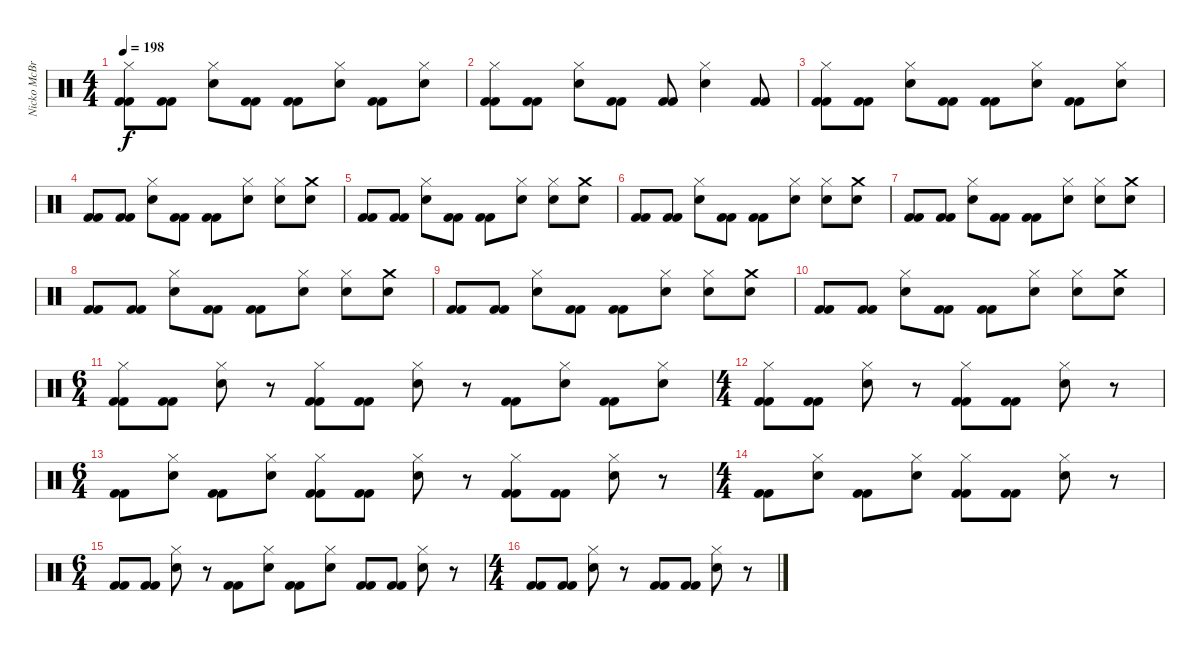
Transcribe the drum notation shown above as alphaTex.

\track ("Nicko McBrain" "Nicko McBr") {instrument percussion}
\staff {score}
\articulation defaults
\ts (4 4)
\tempo 198
\clef neutral
\ks c
("Hi-Hat (closed)" "Kick (hit) 2" "Kick (hit) 2").8{dy f} ("Kick (hit) 2" "Kick (hit) 2").8 ("Hi-Hat (closed)" "Electric Snare (hit)").8 ("Kick (hit) 2" "Kick (hit) 2").8 ("Kick (hit) 2" "Kick (hit) 2").8 ("Hi-Hat (closed)" "Electric Snare (hit)").8 ("Kick (hit) 2" "Kick (hit) 2").8 ("Hi-Hat (closed)" "Electric Snare (hit)").8 |
("Hi-Hat (closed)" "Kick (hit) 2" "Kick (hit) 2").8 ("Kick (hit) 2" "Kick (hit) 2").8 ("Hi-Hat (closed)" "Electric Snare (hit)").8 ("Kick (hit) 2" "Kick (hit) 2").8 ("Kick (hit) 2" "Kick (hit) 2").8 ("Hi-Hat (closed)" "Electric Snare (hit)").4 ("Kick (hit) 2" "Kick (hit) 2").8 |
("Hi-Hat (closed)" "Kick (hit) 2" "Kick (hit) 2").8 ("Kick (hit) 2" "Kick (hit) 2").8 ("Hi-Hat (closed)" "Electric Snare (hit)").8 ("Kick (hit) 2" "Kick (hit) 2").8 ("Kick (hit) 2" "Kick (hit) 2").8 ("Hi-Hat (closed)" "Electric Snare (hit)").8 ("Kick (hit) 2" "Kick (hit) 2").8 ("Hi-Hat (closed)" "Electric Snare (hit)").8 |
("Kick (hit) 2" "Kick (hit) 2").8 ("Kick (hit) 2" "Kick (hit) 2").8 ("Hi-Hat (closed)" "Electric Snare (hit)").8 ("Kick (hit) 2" "Kick (hit) 2").8 ("Kick (hit) 2" "Kick (hit) 2").8 ("Hi-Hat (closed)" "Electric Snare (hit)").8 ("Hi-Hat (closed)" "Electric Snare (hit)").8 ("Crash medium (hit)" "Electric Snare (hit)").8 |
("Kick (hit) 2" "Kick (hit) 2").8 ("Kick (hit) 2" "Kick (hit) 2").8 ("Hi-Hat (closed)" "Electric Snare (hit)").8 ("Kick (hit) 2" "Kick (hit) 2").8 ("Kick (hit) 2" "Kick (hit) 2").8 ("Hi-Hat (closed)" "Electric Snare (hit)").8 ("Hi-Hat (closed)" "Electric Snare (hit)").8 ("Crash medium (hit)" "Electric Snare (hit)").8 |
("Kick (hit) 2" "Kick (hit) 2").8 ("Kick (hit) 2" "Kick (hit) 2").8 ("Hi-Hat (closed)" "Electric Snare (hit)").8 ("Kick (hit) 2" "Kick (hit) 2").8 ("Kick (hit) 2" "Kick (hit) 2").8 ("Hi-Hat (closed)" "Electric Snare (hit)").8 ("Hi-Hat (closed)" "Electric Snare (hit)").8 ("Crash medium (hit)" "Electric Snare (hit)").8 |
("Kick (hit) 2" "Kick (hit) 2").8 ("Kick (hit) 2" "Kick (hit) 2").8 ("Hi-Hat (closed)" "Electric Snare (hit)").8 ("Kick (hit) 2" "Kick (hit) 2").8 ("Kick (hit) 2" "Kick (hit) 2").8 ("Hi-Hat (closed)" "Electric Snare (hit)").8 ("Hi-Hat (closed)" "Electric Snare (hit)").8 ("Crash medium (hit)" "Electric Snare (hit)").8 |
("Kick (hit) 2" "Kick (hit) 2").8 ("Kick (hit) 2" "Kick (hit) 2").8 ("Hi-Hat (closed)" "Electric Snare (hit)").8 ("Kick (hit) 2" "Kick (hit) 2").8 ("Kick (hit) 2" "Kick (hit) 2").8 ("Hi-Hat (closed)" "Electric Snare (hit)").8 ("Hi-Hat (closed)" "Electric Snare (hit)").8 ("Crash medium (hit)" "Electric Snare (hit)").8 |
("Kick (hit) 2" "Kick (hit) 2").8 ("Kick (hit) 2" "Kick (hit) 2").8 ("Hi-Hat (closed)" "Electric Snare (hit)").8 ("Kick (hit) 2" "Kick (hit) 2").8 ("Kick (hit) 2" "Kick (hit) 2").8 ("Hi-Hat (closed)" "Electric Snare (hit)").8 ("Hi-Hat (closed)" "Electric Snare (hit)").8 ("Crash medium (hit)" "Electric Snare (hit)").8 |
("Kick (hit) 2" "Kick (hit) 2").8 ("Kick (hit) 2" "Kick (hit) 2").8 ("Hi-Hat (closed)" "Electric Snare (hit)").8 ("Kick (hit) 2" "Kick (hit) 2").8 ("Kick (hit) 2" "Kick (hit) 2").8 ("Hi-Hat (closed)" "Electric Snare (hit)").8 ("Hi-Hat (closed)" "Electric Snare (hit)").8 ("Crash medium (hit)" "Electric Snare (hit)").8 |
\ts (6 4)
("Hi-Hat (closed)" "Kick (hit) 2" "Kick (hit) 2").8 ("Kick (hit) 2" "Kick (hit) 2").8 ("Hi-Hat (closed)" "Electric Snare (hit)").8 r.8 ("Hi-Hat (closed)" "Kick (hit) 2" "Kick (hit) 2").8 ("Kick (hit) 2" "Kick (hit) 2").8 ("Hi-Hat (closed)" "Electric Snare (hit)").8 r.8 ("Kick (hit) 2" "Kick (hit) 2").8 ("Hi-Hat (closed)" "Electric Snare (hit)").8 ("Kick (hit) 2" "Kick (hit) 2").8 ("Hi-Hat (closed)" "Electric Snare (hit)").8 |
\ts (4 4)
("Hi-Hat (closed)" "Kick (hit) 2" "Kick (hit) 2").8 ("Kick (hit) 2" "Kick (hit) 2").8 ("Hi-Hat (closed)" "Electric Snare (hit)").8 r.8 ("Hi-Hat (closed)" "Kick (hit) 2" "Kick (hit) 2").8 ("Kick (hit) 2" "Kick (hit) 2").8 ("Hi-Hat (closed)" "Electric Snare (hit)").8 r.8 |
\ts (6 4)
("Kick (hit) 2" "Kick (hit) 2").8 ("Hi-Hat (closed)" "Electric Snare (hit)").8 ("Kick (hit) 2" "Kick (hit) 2").8 ("Hi-Hat (closed)" "Electric Snare (hit)").8 ("Hi-Hat (closed)" "Kick (hit) 2" "Kick (hit) 2").8 ("Kick (hit) 2" "Kick (hit) 2").8 ("Hi-Hat (closed)" "Electric Snare (hit)").8 r.8 ("Hi-Hat (closed)" "Kick (hit) 2" "Kick (hit) 2").8 ("Kick (hit) 2" "Kick (hit) 2").8 ("Hi-Hat (closed)" "Electric Snare (hit)").8 r.8 |
\ts (4 4)
("Kick (hit) 2" "Kick (hit) 2").8 ("Hi-Hat (closed)" "Electric Snare (hit)").8 ("Kick (hit) 2" "Kick (hit) 2").8 ("Hi-Hat (closed)" "Electric Snare (hit)").8 ("Hi-Hat (closed)" "Kick (hit) 2" "Kick (hit) 2").8 ("Kick (hit) 2" "Kick (hit) 2").8 ("Hi-Hat (closed)" "Electric Snare (hit)").8 r.8 |
\ts (6 4)
("Kick (hit) 2" "Kick (hit) 2").8 ("Kick (hit) 2" "Kick (hit) 2").8 ("Hi-Hat (closed)" "Electric Snare (hit)").8 r.8 ("Kick (hit) 2" "Kick (hit) 2").8 ("Hi-Hat (closed)" "Electric Snare (hit)").8 ("Kick (hit) 2" "Kick (hit) 2").8 ("Hi-Hat (closed)" "Electric Snare (hit)").8 ("Kick (hit) 2" "Kick (hit) 2").8 ("Kick (hit) 2" "Kick (hit) 2").8 ("Hi-Hat (closed)" "Electric Snare (hit)").8 r.8 |
\ts (4 4)
("Kick (hit) 2" "Kick (hit) 2").8 ("Kick (hit) 2" "Kick (hit) 2").8 ("Hi-Hat (closed)" "Electric Snare (hit)").8 r.8 ("Kick (hit) 2" "Kick (hit) 2").8 ("Kick (hit) 2" "Kick (hit) 2").8 ("Hi-Hat (closed)" "Electric Snare (hit)").8 r.8
